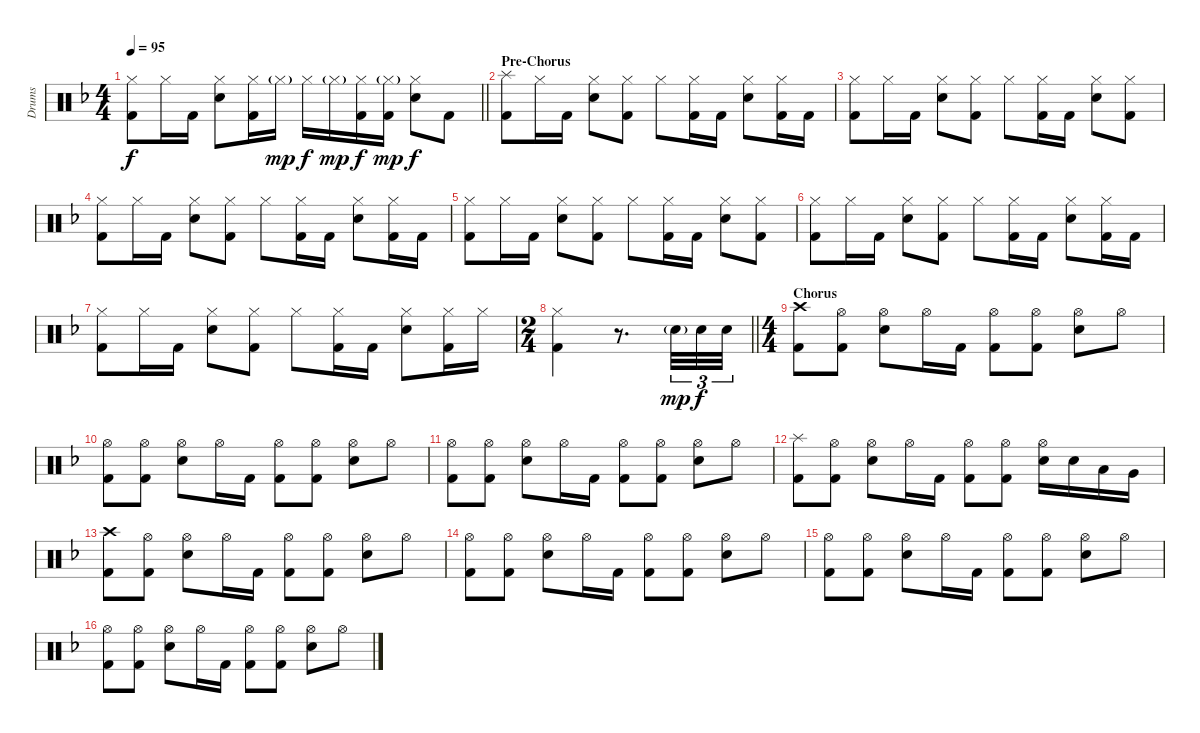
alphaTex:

\track ("Drums" "Drums") {instrument percussion}
\staff {score}
\articulation defaults
\ts (4 4)
\tempo 95
\clef neutral
\barLineRight lightlight
\ks f
("Hi-Hat (closed)" "Kick (hit) 2").8{dy f} "Hi-Hat (closed)".16 "Kick (hit) 2".16 ("Hi-Hat (closed)" "Electric Snare (hit)").8 ("Hi-Hat (closed)" "Kick (hit) 2").16 "Hi-Hat (closed)"{g}.16{dy mp} "Hi-Hat (closed)".16{dy f} "Hi-Hat (closed)"{g}.16{dy mp} ("Hi-Hat (closed)" "Kick (hit) 2").16{dy f} ("Hi-Hat (closed)"{g} "Kick (hit) 2").16{dy mp} ("Hi-Hat (closed)" "Electric Snare (hit)").8{dy f} "Kick (hit) 2".8 |
\section ("" "Pre-Chorus")
("Splash (hit)" "Kick (hit) 2").8 "Hi-Hat (closed)".16 "Kick (hit) 2".16 ("Hi-Hat (closed)" "Electric Snare (hit)").8 ("Hi-Hat (closed)" "Kick (hit) 2").8 "Hi-Hat (closed)".8 ("Hi-Hat (closed)" "Kick (hit) 2").16 "Kick (hit) 2".16 ("Hi-Hat (closed)" "Electric Snare (hit)").8 ("Hi-Hat (closed)" "Kick (hit) 2").16 "Kick (hit) 2".16 |
("Hi-Hat (closed)" "Kick (hit) 2").8 "Hi-Hat (closed)".16 "Kick (hit) 2".16 ("Hi-Hat (closed)" "Electric Snare (hit)").8 ("Hi-Hat (closed)" "Kick (hit) 2").8 "Hi-Hat (closed)".8 ("Hi-Hat (closed)" "Kick (hit) 2").16 "Kick (hit) 2".16 ("Hi-Hat (closed)" "Electric Snare (hit)").8 ("Hi-Hat (closed)" "Kick (hit) 2").8 |
("Hi-Hat (closed)" "Kick (hit) 2").8 "Hi-Hat (closed)".16 "Kick (hit) 2".16 ("Hi-Hat (closed)" "Electric Snare (hit)").8 ("Hi-Hat (closed)" "Kick (hit) 2").8 "Hi-Hat (closed)".8 ("Hi-Hat (closed)" "Kick (hit) 2").16 "Kick (hit) 2".16 ("Hi-Hat (closed)" "Electric Snare (hit)").8 ("Hi-Hat (closed)" "Kick (hit) 2").16 "Kick (hit) 2".16 |
("Hi-Hat (closed)" "Kick (hit) 2").8 "Hi-Hat (closed)".16 "Kick (hit) 2".16 ("Hi-Hat (closed)" "Electric Snare (hit)").8 ("Hi-Hat (closed)" "Kick (hit) 2").8 "Hi-Hat (closed)".8 ("Hi-Hat (closed)" "Kick (hit) 2").16 "Kick (hit) 2".16 ("Hi-Hat (closed)" "Electric Snare (hit)").8 ("Hi-Hat (closed)" "Kick (hit) 2").8 |
("Hi-Hat (closed)" "Kick (hit) 2").8 "Hi-Hat (closed)".16 "Kick (hit) 2".16 ("Hi-Hat (closed)" "Electric Snare (hit)").8 ("Hi-Hat (closed)" "Kick (hit) 2").8 "Hi-Hat (closed)".8 ("Hi-Hat (closed)" "Kick (hit) 2").16 "Kick (hit) 2".16 ("Hi-Hat (closed)" "Electric Snare (hit)").8 ("Hi-Hat (closed)" "Kick (hit) 2").16 "Kick (hit) 2".16 |
("Hi-Hat (closed)" "Kick (hit) 2").8 "Hi-Hat (closed)".16 "Kick (hit) 2".16 ("Hi-Hat (closed)" "Electric Snare (hit)").8 ("Hi-Hat (closed)" "Kick (hit) 2").8 "Hi-Hat (closed)".8 ("Hi-Hat (closed)" "Kick (hit) 2").16 "Kick (hit) 2".16 ("Hi-Hat (closed)" "Electric Snare (hit)").8 ("Hi-Hat (closed)" "Kick (hit) 2").16 "Hi-Hat (closed)".16 |
\ts (2 4)
\barLineRight lightlight
("Hi-Hat (closed)" "Kick (hit) 2").4 r.8{d} "Electric Snare (hit)"{g}.32{tu (3 2) dy mp} "Electric Snare (hit)".32{tu (3 2) dy f} "Electric Snare (hit)".32{tu (3 2)} |
\ts (4 4)
\section ("" "Chorus")
("Crash high (hit)" "Kick (hit) 2").8 ("Hi-Hat (open)" "Kick (hit) 2").8 ("Hi-Hat (open)" "Electric Snare (hit)").8 "Hi-Hat (open)".16 "Kick (hit) 2".16 ("Hi-Hat (open)" "Kick (hit) 2").8 ("Hi-Hat (open)" "Kick (hit) 2").8 ("Hi-Hat (open)" "Electric Snare (hit)").8 "Hi-Hat (open)".8 |
("Hi-Hat (open)" "Kick (hit) 2").8 ("Hi-Hat (open)" "Kick (hit) 2").8 ("Hi-Hat (open)" "Electric Snare (hit)").8 "Hi-Hat (open)".16 "Kick (hit) 2".16 ("Hi-Hat (open)" "Kick (hit) 2").8 ("Hi-Hat (open)" "Kick (hit) 2").8 ("Hi-Hat (open)" "Electric Snare (hit)").8 "Hi-Hat (open)".8 |
("Hi-Hat (open)" "Kick (hit) 2").8 ("Hi-Hat (open)" "Kick (hit) 2").8 ("Hi-Hat (open)" "Electric Snare (hit)").8 "Hi-Hat (open)".16 "Kick (hit) 2".16 ("Hi-Hat (open)" "Kick (hit) 2").8 ("Hi-Hat (open)" "Kick (hit) 2").8 ("Hi-Hat (open)" "Electric Snare (hit)").8 "Hi-Hat (open)".8 |
("Splash (hit)" "Kick (hit) 2").8 ("Hi-Hat (open)" "Kick (hit) 2").8 ("Hi-Hat (open)" "Electric Snare (hit)").8 "Hi-Hat (open)".16 "Kick (hit) 2".16 ("Hi-Hat (open)" "Kick (hit) 2").8 ("Hi-Hat (open)" "Kick (hit) 2").8 ("Hi-Hat (open)" "Electric Snare (hit)").16 "Electric Snare (hit)".16 "Low Tom (hit)".16 "Very Low Tom (hit)".16 |
("Crash high (hit)" "Kick (hit) 2").8 ("Hi-Hat (open)" "Kick (hit) 2").8 ("Hi-Hat (open)" "Electric Snare (hit)").8 "Hi-Hat (open)".16 "Kick (hit) 2".16 ("Hi-Hat (open)" "Kick (hit) 2").8 ("Hi-Hat (open)" "Kick (hit) 2").8 ("Hi-Hat (open)" "Electric Snare (hit)").8 "Hi-Hat (open)".8 |
("Hi-Hat (open)" "Kick (hit) 2").8 ("Hi-Hat (open)" "Kick (hit) 2").8 ("Hi-Hat (open)" "Electric Snare (hit)").8 "Hi-Hat (open)".16 "Kick (hit) 2".16 ("Hi-Hat (open)" "Kick (hit) 2").8 ("Hi-Hat (open)" "Kick (hit) 2").8 ("Hi-Hat (open)" "Electric Snare (hit)").8 "Hi-Hat (open)".8 |
("Hi-Hat (open)" "Kick (hit) 2").8 ("Hi-Hat (open)" "Kick (hit) 2").8 ("Hi-Hat (open)" "Electric Snare (hit)").8 "Hi-Hat (open)".16 "Kick (hit) 2".16 ("Hi-Hat (open)" "Kick (hit) 2").8 ("Hi-Hat (open)" "Kick (hit) 2").8 ("Hi-Hat (open)" "Electric Snare (hit)").8 "Hi-Hat (open)".8 |
("Hi-Hat (open)" "Kick (hit) 2").8 ("Hi-Hat (open)" "Kick (hit) 2").8 ("Hi-Hat (open)" "Electric Snare (hit)").8 "Hi-Hat (open)".16 "Kick (hit) 2".16 ("Hi-Hat (open)" "Kick (hit) 2").8 ("Hi-Hat (open)" "Kick (hit) 2").8 ("Hi-Hat (open)" "Electric Snare (hit)").8 "Hi-Hat (open)".8
